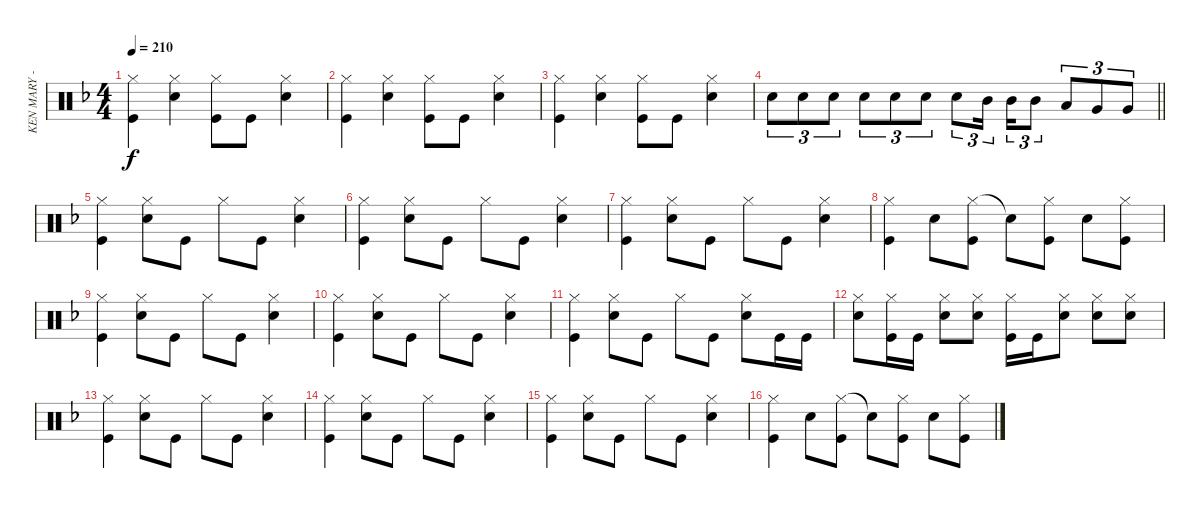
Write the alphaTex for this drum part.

\track ("KEN MARY - DRUMS" "KEN MARY -") {instrument percussion}
\staff {score}
\articulation defaults
\ts (4 4)
\tempo 210
\clef neutral
\ks f
("Hi-Hat (closed)" "Kick (hit)").4{dy f} ("Hi-Hat (closed)" "Snare (hit) 2").4 ("Hi-Hat (closed)" "Kick (hit)").8 "Kick (hit)".8 ("Hi-Hat (closed)" "Snare (hit) 2").4 |
("Hi-Hat (closed)" "Kick (hit)").4 ("Hi-Hat (closed)" "Snare (hit) 2").4 ("Hi-Hat (closed)" "Kick (hit)").8 "Kick (hit)".8 ("Hi-Hat (closed)" "Snare (hit) 2").4 |
("Hi-Hat (closed)" "Kick (hit)").4 ("Hi-Hat (closed)" "Snare (hit) 2").4 ("Hi-Hat (closed)" "Kick (hit)").8 "Kick (hit)".8 ("Hi-Hat (closed)" "Snare (hit) 2").4 |
\barLineRight lightlight "Snare (hit) 2".8{tu (3 2)} "Snare (hit) 2".8{tu (3 2)} "Snare (hit) 2".8{tu (3 2)} "Snare (hit) 2".8{tu (3 2)} "Snare (hit) 2".8{tu (3 2)} "Snare (hit) 2".8{tu (3 2)} "Snare (hit) 2".8{tu (3 2)} "Mid Tom (hit)".16{tu (3 2) beam splitsecondary} "Mid Tom (hit)".16{tu (3 2)} "Mid Tom (hit)".8{tu (3 2)} "Low Tom (hit)".8{tu (3 2)} "Very Low Tom (hit)".8{tu (3 2)} "Very Low Tom (hit)".8{tu (3 2)}
|
("Hi-Hat (closed)" "Kick (hit)").4 ("Hi-Hat (closed)" "Snare (hit) 2").8 "Kick (hit)".8 "Hi-Hat (closed)".8 "Kick (hit)".8 ("Hi-Hat (closed)" "Snare (hit) 2").4 |
("Hi-Hat (closed)" "Kick (hit)").4 ("Hi-Hat (closed)" "Snare (hit) 2").8 "Kick (hit)".8 "Hi-Hat (closed)".8 "Kick (hit)".8 ("Hi-Hat (closed)" "Snare (hit) 2").4 |
("Hi-Hat (closed)" "Kick (hit)").4 ("Hi-Hat (closed)" "Snare (hit) 2").8 "Kick (hit)".8 "Hi-Hat (closed)".8 "Kick (hit)".8 ("Hi-Hat (closed)" "Snare (hit) 2").4 |
("Hi-Hat (closed)" "Kick (hit)").4 "Snare (hit) 2".8 ("Hi-Hat (closed)" "Kick (hit)").8 "Snare (hit)"{t}.8 ("Hi-Hat (closed)" "Kick (hit)").8 "Snare (hit) 2".8 ("Hi-Hat (closed)" "Kick (hit)").8 |
("Hi-Hat (closed)" "Kick (hit)").4 ("Hi-Hat (closed)" "Snare (hit) 2").8 "Kick (hit)".8 "Hi-Hat (closed)".8 "Kick (hit)".8 ("Hi-Hat (closed)" "Snare (hit) 2").4 |
("Hi-Hat (closed)" "Kick (hit)").4 ("Hi-Hat (closed)" "Snare (hit) 2").8 "Kick (hit)".8 "Hi-Hat (closed)".8 "Kick (hit)".8 ("Hi-Hat (closed)" "Snare (hit) 2").4 |
("Hi-Hat (closed)" "Kick (hit)").4 ("Hi-Hat (closed)" "Snare (hit) 2").8 "Kick (hit)".8 "Hi-Hat (closed)".8 "Kick (hit)".8 ("Hi-Hat (closed)" "Snare (hit) 2").8 "Kick (hit)".16 "Kick (hit)".16 |
("Hi-Hat (closed)" "Snare (hit) 2").8 ("Hi-Hat (closed)" "Kick (hit)").16 "Kick (hit)".16 ("Hi-Hat (closed)" "Snare (hit) 2").8 ("Hi-Hat (closed)" "Snare (hit) 2").8 ("Hi-Hat (closed)" "Kick (hit)").16 "Kick (hit)".16 ("Hi-Hat (closed)" "Snare (hit) 2").8 ("Hi-Hat (closed)" "Snare (hit) 2").8 ("Hi-Hat (closed)" "Snare (hit) 2").8 |
("Hi-Hat (closed)" "Kick (hit)").4 ("Hi-Hat (closed)" "Snare (hit) 2").8 "Kick (hit)".8 "Hi-Hat (closed)".8 "Kick (hit)".8 ("Hi-Hat (closed)" "Snare (hit) 2").4 |
("Hi-Hat (closed)" "Kick (hit)").4 ("Hi-Hat (closed)" "Snare (hit) 2").8 "Kick (hit)".8 "Hi-Hat (closed)".8 "Kick (hit)".8 ("Hi-Hat (closed)" "Snare (hit) 2").4 |
("Hi-Hat (closed)" "Kick (hit)").4 ("Hi-Hat (closed)" "Snare (hit) 2").8 "Kick (hit)".8 "Hi-Hat (closed)".8 "Kick (hit)".8 ("Hi-Hat (closed)" "Snare (hit) 2").4 |
("Hi-Hat (closed)" "Kick (hit)").4 "Snare (hit) 2".8 ("Hi-Hat (closed)" "Kick (hit)").8 "Snare (hit)"{t}.8 ("Hi-Hat (closed)" "Kick (hit)").8 "Snare (hit) 2".8 ("Hi-Hat (closed)" "Kick (hit)").8
